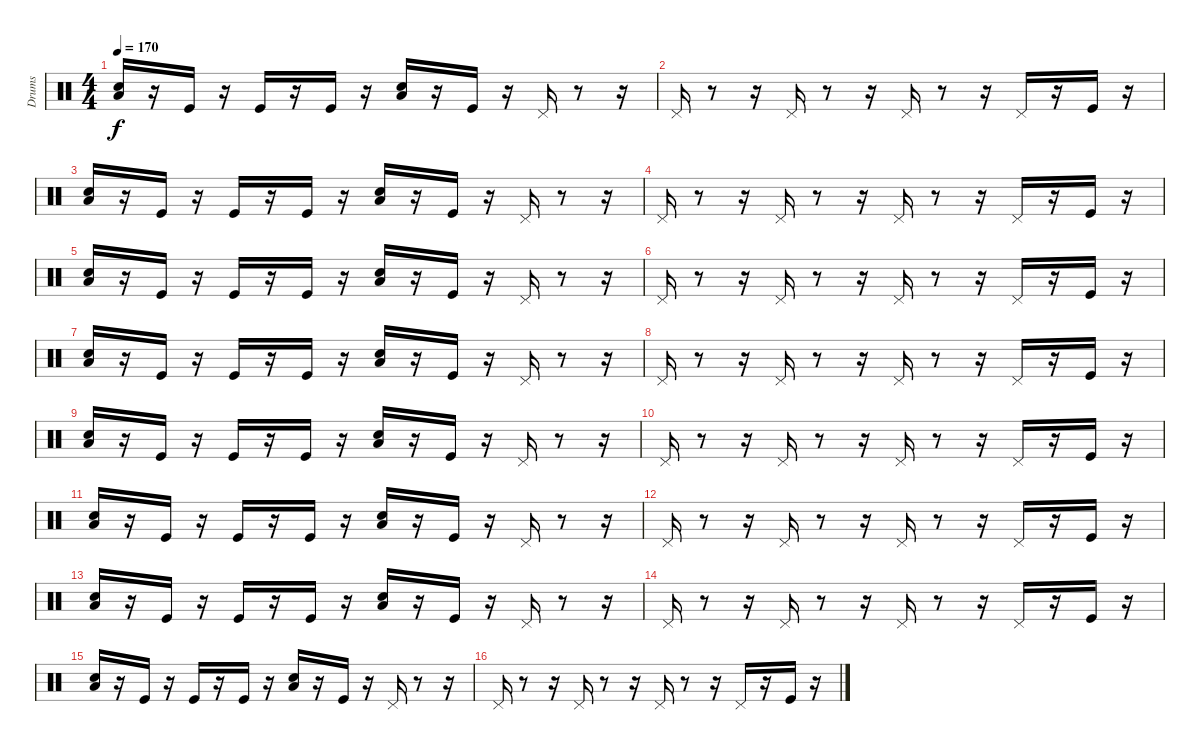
\track ("Drums" "Drums") {instrument percussion}
\staff {score}
\articulation defaults
\ts (4 4)
\tempo 170
\clef neutral
\ks c
("Snare (hit) 2" "Low Tom (hit)").16{dy f} r.16 "Kick (hit)".16 r.16 "Kick (hit)".16 r.16 "Kick (hit)".16 r.16 ("Snare (hit) 2" "Low Tom (hit)").16 r.16 "Kick (hit)".16 r.16 "Pedal Hi-Hat (hit)".16 r.8 r.16 |
"Pedal Hi-Hat (hit)".16 r.8 r.16 "Pedal Hi-Hat (hit)".16 r.8 r.16 "Pedal Hi-Hat (hit)".16 r.8 r.16 "Pedal Hi-Hat (hit)".16 r.16 "Kick (hit)".16 r.16 |
("Snare (hit) 2" "Low Tom (hit)").16 r.16 "Kick (hit)".16 r.16 "Kick (hit)".16 r.16 "Kick (hit)".16 r.16 ("Snare (hit) 2" "Low Tom (hit)").16 r.16 "Kick (hit)".16 r.16 "Pedal Hi-Hat (hit)".16 r.8 r.16 |
"Pedal Hi-Hat (hit)".16 r.8 r.16 "Pedal Hi-Hat (hit)".16 r.8 r.16 "Pedal Hi-Hat (hit)".16 r.8 r.16 "Pedal Hi-Hat (hit)".16 r.16 "Kick (hit)".16 r.16 |
("Snare (hit) 2" "Low Tom (hit)").16 r.16 "Kick (hit)".16 r.16 "Kick (hit)".16 r.16 "Kick (hit)".16 r.16 ("Snare (hit) 2" "Low Tom (hit)").16 r.16 "Kick (hit)".16 r.16 "Pedal Hi-Hat (hit)".16 r.8 r.16 |
"Pedal Hi-Hat (hit)".16 r.8 r.16 "Pedal Hi-Hat (hit)".16 r.8 r.16 "Pedal Hi-Hat (hit)".16 r.8 r.16 "Pedal Hi-Hat (hit)".16 r.16 "Kick (hit)".16 r.16 |
("Snare (hit) 2" "Low Tom (hit)").16 r.16 "Kick (hit)".16 r.16 "Kick (hit)".16 r.16 "Kick (hit)".16 r.16 ("Snare (hit) 2" "Low Tom (hit)").16 r.16 "Kick (hit)".16 r.16 "Pedal Hi-Hat (hit)".16 r.8 r.16 |
"Pedal Hi-Hat (hit)".16 r.8 r.16 "Pedal Hi-Hat (hit)".16 r.8 r.16 "Pedal Hi-Hat (hit)".16 r.8 r.16 "Pedal Hi-Hat (hit)".16 r.16 "Kick (hit)".16 r.16 |
("Snare (hit) 2" "Low Tom (hit)").16 r.16 "Kick (hit)".16 r.16 "Kick (hit)".16 r.16 "Kick (hit)".16 r.16 ("Snare (hit) 2" "Low Tom (hit)").16 r.16 "Kick (hit)".16 r.16 "Pedal Hi-Hat (hit)".16 r.8 r.16 |
"Pedal Hi-Hat (hit)".16 r.8 r.16 "Pedal Hi-Hat (hit)".16 r.8 r.16 "Pedal Hi-Hat (hit)".16 r.8 r.16 "Pedal Hi-Hat (hit)".16 r.16 "Kick (hit)".16 r.16 |
("Snare (hit) 2" "Low Tom (hit)").16 r.16 "Kick (hit)".16 r.16 "Kick (hit)".16 r.16 "Kick (hit)".16 r.16 ("Snare (hit) 2" "Low Tom (hit)").16 r.16 "Kick (hit)".16 r.16 "Pedal Hi-Hat (hit)".16 r.8 r.16 |
"Pedal Hi-Hat (hit)".16 r.8 r.16 "Pedal Hi-Hat (hit)".16 r.8 r.16 "Pedal Hi-Hat (hit)".16 r.8 r.16 "Pedal Hi-Hat (hit)".16 r.16 "Kick (hit)".16 r.16 |
("Snare (hit) 2" "Low Tom (hit)").16 r.16 "Kick (hit)".16 r.16 "Kick (hit)".16 r.16 "Kick (hit)".16 r.16 ("Snare (hit) 2" "Low Tom (hit)").16 r.16 "Kick (hit)".16 r.16 "Pedal Hi-Hat (hit)".16 r.8 r.16 |
"Pedal Hi-Hat (hit)".16 r.8 r.16 "Pedal Hi-Hat (hit)".16 r.8 r.16 "Pedal Hi-Hat (hit)".16 r.8 r.16 "Pedal Hi-Hat (hit)".16 r.16 "Kick (hit)".16 r.16 |
("Snare (hit) 2" "Low Tom (hit)").16 r.16 "Kick (hit)".16 r.16 "Kick (hit)".16 r.16 "Kick (hit)".16 r.16 ("Snare (hit) 2" "Low Tom (hit)").16 r.16 "Kick (hit)".16 r.16 "Pedal Hi-Hat (hit)".16 r.8 r.16 |
"Pedal Hi-Hat (hit)".16 r.8 r.16 "Pedal Hi-Hat (hit)".16 r.8 r.16 "Pedal Hi-Hat (hit)".16 r.8 r.16 "Pedal Hi-Hat (hit)".16 r.16 "Kick (hit)".16 r.16
